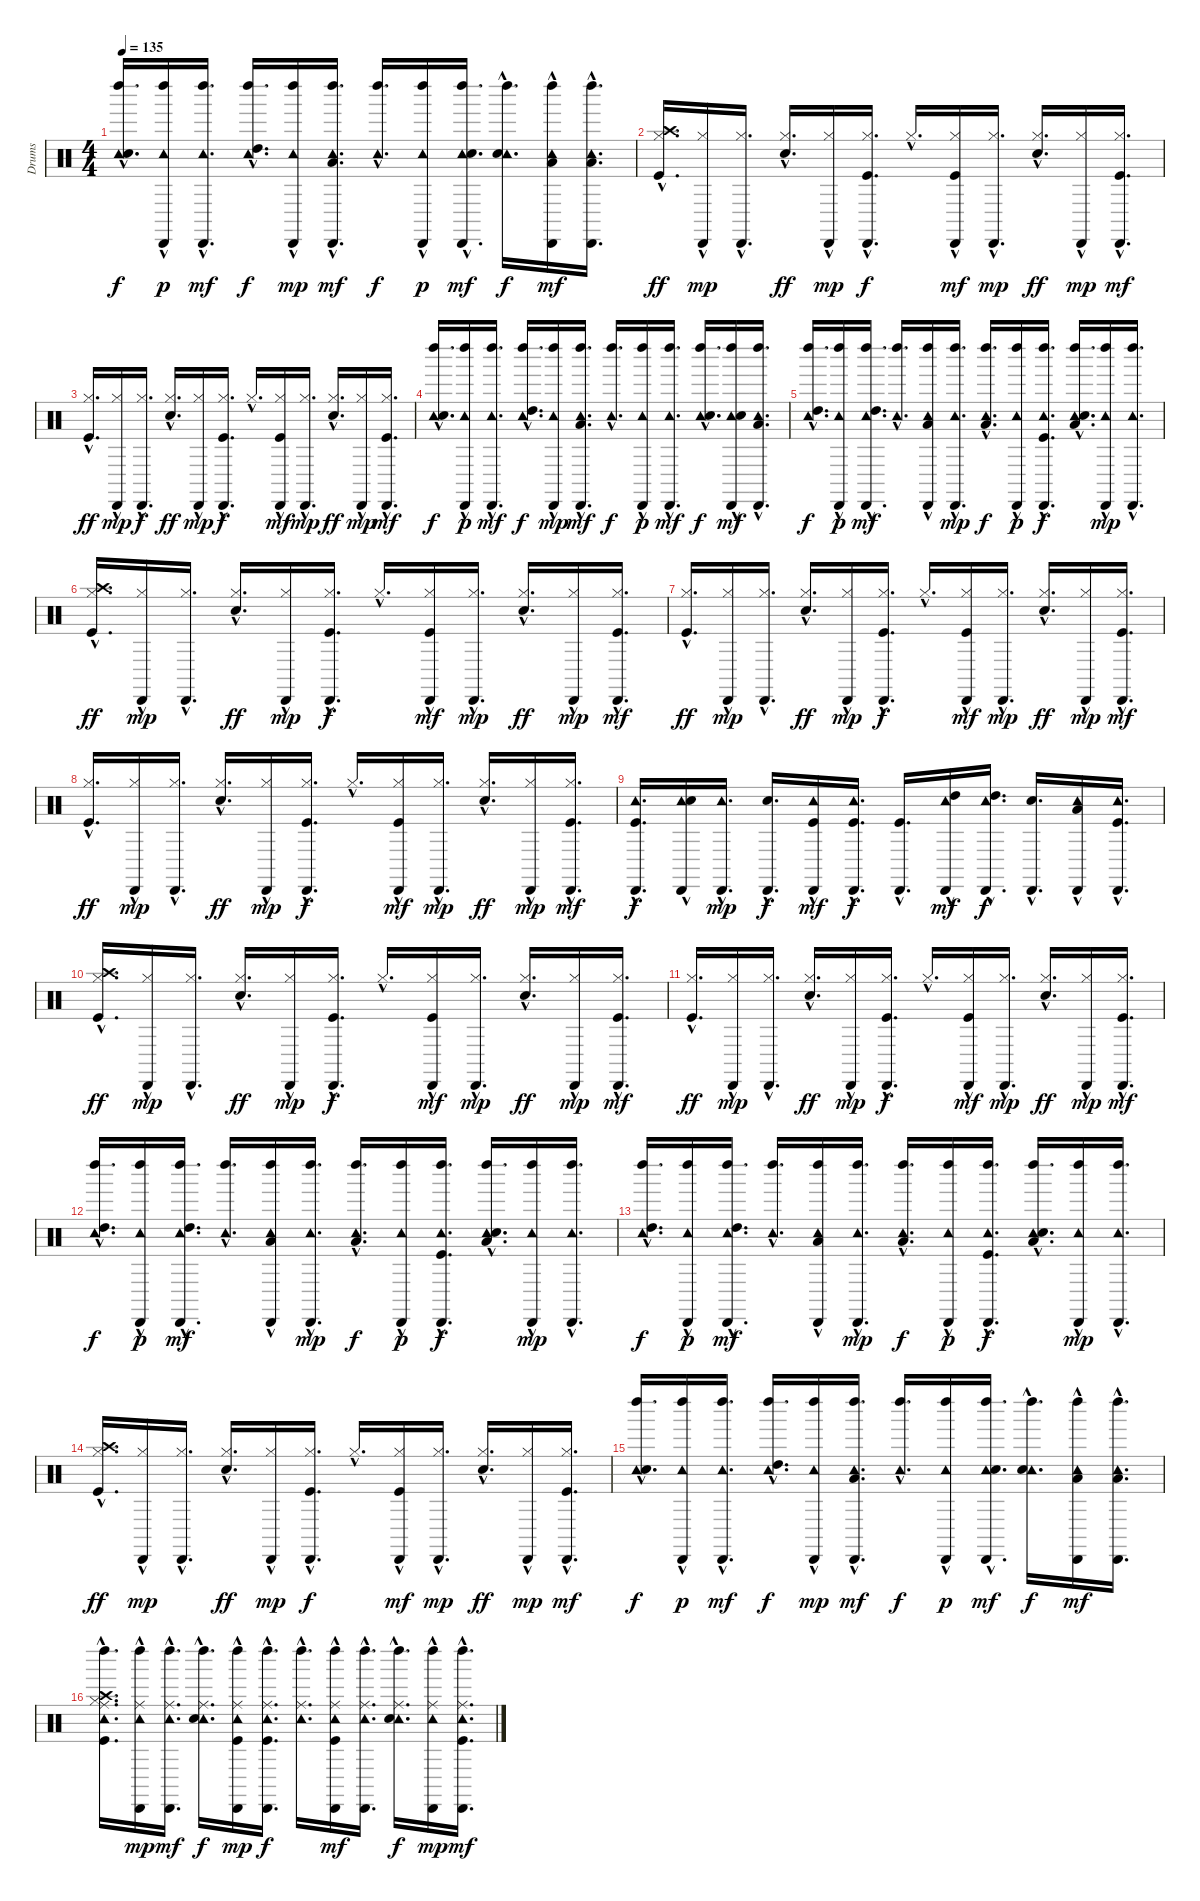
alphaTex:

\track ("Drums" "Drums") {instrument percussion}
\staff {score}
\articulation defaults
\ts (4 4)
\tempo 135
\clef neutral
\ks c
("Left Maraca (hit)"{hac} "Tambourine (hit)"{hac} "Snare (hit) 2"{hac}).16{d dy f} ("Left Maraca (hit)"{hac} "Cabasa (hit)"{hac} "Tambourine (hit)"{hac}).16{dy p} ("Left Maraca (hit)"{hac} "Cabasa (hit)"{hac} "Tambourine (hit)"{hac}).16{d dy mf} ("Left Maraca (hit)"{hac} "Tambourine (hit)"{hac} "High Tom (hit)"{hac}).16{d dy f} ("Left Maraca (hit)"{hac} "Cabasa (hit)"{hac} "Tambourine (hit)"{hac}).16{dy mp} ("Left Maraca (hit)"{hac} "Cabasa (hit)"{hac} "Tambourine (hit)"{hac} "Low Tom (hit)"{hac}).16{d dy mf} ("Left Maraca (hit)"{hac} "Tambourine (hit)"{hac}).16{d dy f} ("Left Maraca (hit)"{hac} "Cabasa (hit)"{hac} "Tambourine (hit)"{hac}).16{dy p} ("Left Maraca (hit)"{hac} "Cabasa (hit)"{hac} "Tambourine (hit)"{hac} "Snare (hit) 2"{hac}).16{d dy mf} ("Left Maraca (hit)"{hac} "Tambourine (hit)"{hac} "Snare (hit) 2"{hac}).16{d dy f} ("Left Maraca (hit)"{hac} "Cabasa (hit)"{hac} "Tambourine (hit)"{hac} "Low Floor Tom (hit)"{hac}).16{dy mf} ("Left Maraca (hit)"{hac} "Cabasa (hit)"{hac} "Tambourine (hit)"{hac} "Low Floor Tom (hit)"{hac}).16{d} |
("Crash high (hit)"{hac} "Hi-Hat (closed)"{hac} "Kick (hit)"{hac}).16{d dy ff} ("Cabasa (hit)"{hac} "Hi-Hat (closed)"{hac}).16{dy mp} ("Cabasa (hit)"{hac} "Hi-Hat (closed)"{hac}).16{d} ("Hi-Hat (closed)"{hac} "Snare (hit) 2"{hac}).16{d dy ff} ("Cabasa (hit)"{hac} "Hi-Hat (closed)"{hac}).16{dy mp} ("Cabasa (hit)"{hac} "Hi-Hat (closed)"{hac} "Kick (hit)"{hac}).16{d dy f} "Hi-Hat (closed)"{hac}.16{d} ("Cabasa (hit)"{hac} "Hi-Hat (closed)"{hac} "Kick (hit)"{hac}).16{dy mf} ("Cabasa (hit)"{hac} "Hi-Hat (closed)"{hac}).16{d dy mp} ("Hi-Hat (closed)"{hac} "Snare (hit) 2"{hac}).16{d dy ff} ("Cabasa (hit)"{hac} "Hi-Hat (closed)"{hac}).16{dy mp} ("Cabasa (hit)"{hac} "Hi-Hat (closed)"{hac} "Kick (hit)"{hac}).16{d dy mf} |
("Hi-Hat (closed)"{hac} "Kick (hit)"{hac}).16{d dy ff} ("Cabasa (hit)"{hac} "Hi-Hat (closed)"{hac}).16{dy mp} ("Cabasa (hit)"{hac} "Hi-Hat (closed)"{hac}).16{d dy f} ("Hi-Hat (closed)"{hac} "Snare (hit) 2"{hac}).16{d dy ff} ("Cabasa (hit)"{hac} "Hi-Hat (closed)"{hac}).16{dy mp} ("Cabasa (hit)"{hac} "Hi-Hat (closed)"{hac} "Kick (hit)"{hac}).16{d dy f} "Hi-Hat (closed)"{hac}.16{d} ("Cabasa (hit)"{hac} "Hi-Hat (closed)"{hac} "Kick (hit)"{hac}).16{dy mf} ("Cabasa (hit)"{hac} "Hi-Hat (closed)"{hac}).16{d dy mp} ("Hi-Hat (closed)"{hac} "Snare (hit) 2"{hac}).16{d dy ff} ("Cabasa (hit)"{hac} "Hi-Hat (closed)"{hac}).16{dy mp} ("Cabasa (hit)"{hac} "Hi-Hat (closed)"{hac} "Kick (hit)"{hac}).16{d dy mf} |
("Left Maraca (hit)"{hac} "Tambourine (hit)"{hac} "Snare (hit) 2"{hac}).16{d dy f} ("Left Maraca (hit)"{hac} "Cabasa (hit)"{hac} "Tambourine (hit)"{hac}).16{dy p} ("Left Maraca (hit)"{hac} "Cabasa (hit)"{hac} "Tambourine (hit)"{hac}).16{d dy mf} ("Left Maraca (hit)"{hac} "Tambourine (hit)"{hac} "High Tom (hit)"{hac}).16{d dy f} ("Left Maraca (hit)"{hac} "Cabasa (hit)"{hac} "Tambourine (hit)"{hac}).16{dy mp} ("Left Maraca (hit)"{hac} "Cabasa (hit)"{hac} "Tambourine (hit)"{hac} "Low Tom (hit)"{hac}).16{d dy mf} ("Left Maraca (hit)"{hac} "Tambourine (hit)"{hac}).16{d dy f} ("Left Maraca (hit)"{hac} "Cabasa (hit)"{hac} "Tambourine (hit)"{hac}).16{dy p} ("Left Maraca (hit)"{hac} "Cabasa (hit)"{hac} "Tambourine (hit)"{hac}).16{d dy mf} ("Left Maraca (hit)"{hac} "Tambourine (hit)"{hac} "Snare (hit) 2"{hac}).16{d dy f} ("Left Maraca (hit)"{hac} "Cabasa (hit)"{hac} "Tambourine (hit)"{hac} "Snare (hit) 2"{hac}).16{dy mf} ("Left Maraca (hit)"{hac} "Cabasa (hit)"{hac} "Tambourine (hit)"{hac} "Low Floor Tom (hit)"{hac}).16{d} |
("Left Maraca (hit)"{hac} "Tambourine (hit)"{hac} "High Tom (hit)"{hac}).16{d dy f} ("Left Maraca (hit)"{hac} "Cabasa (hit)"{hac} "Tambourine (hit)"{hac}).16{dy p} ("Left Maraca (hit)"{hac} "Cabasa (hit)"{hac} "Tambourine (hit)"{hac} "High Tom (hit)"{hac}).16{d dy mf} ("Left Maraca (hit)"{hac} "Tambourine (hit)"{hac}).16{d} ("Left Maraca (hit)"{hac} "Cabasa (hit)"{hac} "Tambourine (hit)"{hac} "Low Tom (hit)"{hac}).16 ("Left Maraca (hit)"{hac} "Cabasa (hit)"{hac} "Tambourine (hit)"{hac}).16{d dy mp} ("Left Maraca (hit)"{hac} "Tambourine (hit)"{hac} "Low Tom (hit)"{hac}).16{d dy f} ("Left Maraca (hit)"{hac} "Cabasa (hit)"{hac} "Tambourine (hit)"{hac}).16{dy p} ("Left Maraca (hit)"{hac} "Cabasa (hit)"{hac} "Tambourine (hit)"{hac} "Kick (hit)"{hac}).16{d dy f} ("Left Maraca (hit)"{hac} "Tambourine (hit)"{hac} "Low Floor Tom (hit)"{hac} "Snare (hit) 2"{hac}).16{d} ("Left Maraca (hit)"{hac} "Cabasa (hit)"{hac} "Tambourine (hit)"{hac}).16{dy mp} ("Left Maraca (hit)"{hac} "Cabasa (hit)"{hac} "Tambourine (hit)"{hac}).16{d} |
("Crash high (hit)"{hac} "Hi-Hat (closed)"{hac} "Kick (hit)"{hac}).16{d dy ff} ("Cabasa (hit)"{hac} "Hi-Hat (closed)"{hac}).16{dy mp} ("Cabasa (hit)"{hac} "Hi-Hat (closed)"{hac}).16{d} ("Hi-Hat (closed)"{hac} "Snare (hit) 2"{hac}).16{d dy ff} ("Cabasa (hit)"{hac} "Hi-Hat (closed)"{hac}).16{dy mp} ("Cabasa (hit)"{hac} "Hi-Hat (closed)"{hac} "Kick (hit)"{hac}).16{d dy f} "Hi-Hat (closed)"{hac}.16{d} ("Cabasa (hit)"{hac} "Hi-Hat (closed)"{hac} "Kick (hit)"{hac}).16{dy mf} ("Cabasa (hit)"{hac} "Hi-Hat (closed)"{hac}).16{d dy mp} ("Hi-Hat (closed)"{hac} "Snare (hit) 2"{hac}).16{d dy ff} ("Cabasa (hit)"{hac} "Hi-Hat (closed)"{hac}).16{dy mp} ("Cabasa (hit)"{hac} "Hi-Hat (closed)"{hac} "Kick (hit)"{hac}).16{d dy mf} |
("Hi-Hat (closed)"{hac} "Kick (hit)"{hac}).16{d dy ff} ("Cabasa (hit)"{hac} "Hi-Hat (closed)"{hac}).16{dy mp} ("Cabasa (hit)"{hac} "Hi-Hat (closed)"{hac}).16{d} ("Hi-Hat (closed)"{hac} "Snare (hit) 2"{hac}).16{d dy ff} ("Cabasa (hit)"{hac} "Hi-Hat (closed)"{hac}).16{dy mp} ("Cabasa (hit)"{hac} "Hi-Hat (closed)"{hac} "Kick (hit)"{hac}).16{d dy f} "Hi-Hat (closed)"{hac}.16{d} ("Cabasa (hit)"{hac} "Hi-Hat (closed)"{hac} "Kick (hit)"{hac}).16{dy mf} ("Cabasa (hit)"{hac} "Hi-Hat (closed)"{hac}).16{d dy mp} ("Hi-Hat (closed)"{hac} "Snare (hit) 2"{hac}).16{d dy ff} ("Cabasa (hit)"{hac} "Hi-Hat (closed)"{hac}).16{dy mp} ("Cabasa (hit)"{hac} "Hi-Hat (closed)"{hac} "Kick (hit)"{hac}).16{d dy mf} |
("Hi-Hat (closed)"{hac} "Kick (hit)"{hac}).16{d dy ff} ("Cabasa (hit)"{hac} "Hi-Hat (closed)"{hac}).16{dy mp} ("Cabasa (hit)"{hac} "Hi-Hat (closed)"{hac}).16{d} ("Hi-Hat (closed)"{hac} "Snare (hit) 2"{hac}).16{d dy ff} ("Cabasa (hit)"{hac} "Hi-Hat (closed)"{hac}).16{dy mp} ("Cabasa (hit)"{hac} "Hi-Hat (closed)"{hac} "Kick (hit)"{hac}).16{d dy f} "Hi-Hat (closed)"{hac}.16{d} ("Cabasa (hit)"{hac} "Hi-Hat (closed)"{hac} "Kick (hit)"{hac}).16{dy mf} ("Cabasa (hit)"{hac} "Hi-Hat (closed)"{hac}).16{d dy mp} ("Hi-Hat (closed)"{hac} "Snare (hit) 2"{hac}).16{d dy ff} ("Cabasa (hit)"{hac} "Hi-Hat (closed)"{hac}).16{dy mp} ("Cabasa (hit)"{hac} "Hi-Hat (closed)"{hac} "Kick (hit)"{hac}).16{d dy mf} |
("Cabasa (hit)"{hac} "Tambourine (hit)"{hac} "Kick (hit)"{hac}).16{d dy f} ("Cabasa (hit)"{hac} "Tambourine (hit)"{hac} "Snare (hit) 2"{hac}).16 ("Cabasa (hit)"{hac} "Tambourine (hit)"{hac}).16{d dy mp} ("Cabasa (hit)"{hac} "Snare (hit) 2"{hac}).16{d dy f} ("Cabasa (hit)"{hac} "Tambourine (hit)"{hac} "Kick (hit)"{hac}).16{dy mf} ("Cabasa (hit)"{hac} "Tambourine (hit)"{hac} "Kick (hit)"{hac}).16{d dy f} ("Cabasa (hit)"{hac} "Kick (hit)"{hac}).16{d} ("Cabasa (hit)"{hac} "Tambourine (hit)"{hac} "High Tom (hit)"{hac}).16{dy mf} ("Cabasa (hit)"{hac} "Tambourine (hit)"{hac} "High Tom (hit)"{hac}).16{d dy f} ("Cabasa (hit)"{hac} "Snare (hit) 2"{hac}).16{d} ("Cabasa (hit)"{hac} "Tambourine (hit)"{hac} "Low Tom (hit)"{hac}).16 ("Cabasa (hit)"{hac} "Tambourine (hit)"{hac} "Kick (hit)"{hac}).16{d} |
("Crash high (hit)"{hac} "Hi-Hat (closed)"{hac} "Kick (hit)"{hac}).16{d dy ff} ("Cabasa (hit)"{hac} "Hi-Hat (closed)"{hac}).16{dy mp} ("Cabasa (hit)"{hac} "Hi-Hat (closed)"{hac}).16{d} ("Hi-Hat (closed)"{hac} "Snare (hit) 2"{hac}).16{d dy ff} ("Cabasa (hit)"{hac} "Hi-Hat (closed)"{hac}).16{dy mp} ("Cabasa (hit)"{hac} "Hi-Hat (closed)"{hac} "Kick (hit)"{hac}).16{d dy f} "Hi-Hat (closed)"{hac}.16{d} ("Cabasa (hit)"{hac} "Hi-Hat (closed)"{hac} "Kick (hit)"{hac}).16{dy mf} ("Cabasa (hit)"{hac} "Hi-Hat (closed)"{hac}).16{d dy mp} ("Hi-Hat (closed)"{hac} "Snare (hit) 2"{hac}).16{d dy ff} ("Cabasa (hit)"{hac} "Hi-Hat (closed)"{hac}).16{dy mp} ("Cabasa (hit)"{hac} "Hi-Hat (closed)"{hac} "Kick (hit)"{hac}).16{d dy mf} |
("Hi-Hat (closed)"{hac} "Kick (hit)"{hac}).16{d dy ff} ("Cabasa (hit)"{hac} "Hi-Hat (closed)"{hac}).16{dy mp} ("Cabasa (hit)"{hac} "Hi-Hat (closed)"{hac}).16{d} ("Hi-Hat (closed)"{hac} "Snare (hit) 2"{hac}).16{d dy ff} ("Cabasa (hit)"{hac} "Hi-Hat (closed)"{hac}).16{dy mp} ("Cabasa (hit)"{hac} "Hi-Hat (closed)"{hac} "Kick (hit)"{hac}).16{d dy f} "Hi-Hat (closed)"{hac}.16{d} ("Cabasa (hit)"{hac} "Hi-Hat (closed)"{hac} "Kick (hit)"{hac}).16{dy mf} ("Cabasa (hit)"{hac} "Hi-Hat (closed)"{hac}).16{d dy mp} ("Hi-Hat (closed)"{hac} "Snare (hit) 2"{hac}).16{d dy ff} ("Cabasa (hit)"{hac} "Hi-Hat (closed)"{hac}).16{dy mp} ("Cabasa (hit)"{hac} "Hi-Hat (closed)"{hac} "Kick (hit)"{hac}).16{d dy mf} |
("Left Maraca (hit)"{hac} "Tambourine (hit)"{hac} "High Tom (hit)"{hac}).16{d dy f} ("Left Maraca (hit)"{hac} "Cabasa (hit)"{hac} "Tambourine (hit)"{hac}).16{dy p} ("Left Maraca (hit)"{hac} "Cabasa (hit)"{hac} "Tambourine (hit)"{hac} "High Tom (hit)"{hac}).16{d dy mf} ("Left Maraca (hit)"{hac} "Tambourine (hit)"{hac}).16{d} ("Left Maraca (hit)"{hac} "Cabasa (hit)"{hac} "Tambourine (hit)"{hac} "Low Tom (hit)"{hac}).16 ("Left Maraca (hit)"{hac} "Cabasa (hit)"{hac} "Tambourine (hit)"{hac}).16{d dy mp} ("Left Maraca (hit)"{hac} "Tambourine (hit)"{hac} "Low Tom (hit)"{hac}).16{d dy f} ("Left Maraca (hit)"{hac} "Cabasa (hit)"{hac} "Tambourine (hit)"{hac}).16{dy p} ("Left Maraca (hit)"{hac} "Cabasa (hit)"{hac} "Tambourine (hit)"{hac} "Kick (hit)"{hac}).16{d dy f} ("Left Maraca (hit)"{hac} "Tambourine (hit)"{hac} "Low Floor Tom (hit)"{hac} "Snare (hit) 2"{hac}).16{d} ("Left Maraca (hit)"{hac} "Cabasa (hit)"{hac} "Tambourine (hit)"{hac}).16{dy mp} ("Left Maraca (hit)"{hac} "Cabasa (hit)"{hac} "Tambourine (hit)"{hac}).16{d} |
("Left Maraca (hit)"{hac} "Tambourine (hit)"{hac} "High Tom (hit)"{hac}).16{d dy f} ("Left Maraca (hit)"{hac} "Cabasa (hit)"{hac} "Tambourine (hit)"{hac}).16{dy p} ("Left Maraca (hit)"{hac} "Cabasa (hit)"{hac} "Tambourine (hit)"{hac} "High Tom (hit)"{hac}).16{d dy mf} ("Left Maraca (hit)"{hac} "Tambourine (hit)"{hac}).16{d} ("Left Maraca (hit)"{hac} "Cabasa (hit)"{hac} "Tambourine (hit)"{hac} "Low Tom (hit)"{hac}).16 ("Left Maraca (hit)"{hac} "Cabasa (hit)"{hac} "Tambourine (hit)"{hac}).16{d dy mp} ("Left Maraca (hit)"{hac} "Tambourine (hit)"{hac} "Low Tom (hit)"{hac}).16{d dy f} ("Left Maraca (hit)"{hac} "Cabasa (hit)"{hac} "Tambourine (hit)"{hac}).16{dy p} ("Left Maraca (hit)"{hac} "Cabasa (hit)"{hac} "Tambourine (hit)"{hac} "Kick (hit)"{hac}).16{d dy f} ("Left Maraca (hit)"{hac} "Tambourine (hit)"{hac} "Low Floor Tom (hit)"{hac} "Snare (hit) 2"{hac}).16{d} ("Left Maraca (hit)"{hac} "Cabasa (hit)"{hac} "Tambourine (hit)"{hac}).16{dy mp} ("Left Maraca (hit)"{hac} "Cabasa (hit)"{hac} "Tambourine (hit)"{hac}).16{d} |
("Crash high (hit)"{hac} "Hi-Hat (closed)"{hac} "Kick (hit)"{hac}).16{d dy ff} ("Cabasa (hit)"{hac} "Hi-Hat (closed)"{hac}).16{dy mp} ("Cabasa (hit)"{hac} "Hi-Hat (closed)"{hac}).16{d} ("Hi-Hat (closed)"{hac} "Snare (hit) 2"{hac}).16{d dy ff} ("Cabasa (hit)"{hac} "Hi-Hat (closed)"{hac}).16{dy mp} ("Cabasa (hit)"{hac} "Hi-Hat (closed)"{hac} "Kick (hit)"{hac}).16{d dy f} "Hi-Hat (closed)"{hac}.16{d} ("Cabasa (hit)"{hac} "Hi-Hat (closed)"{hac} "Kick (hit)"{hac}).16{dy mf} ("Cabasa (hit)"{hac} "Hi-Hat (closed)"{hac}).16{d dy mp} ("Hi-Hat (closed)"{hac} "Snare (hit) 2"{hac}).16{d dy ff} ("Cabasa (hit)"{hac} "Hi-Hat (closed)"{hac}).16{dy mp} ("Cabasa (hit)"{hac} "Hi-Hat (closed)"{hac} "Kick (hit)"{hac}).16{d dy mf} |
("Left Maraca (hit)"{hac} "Tambourine (hit)"{hac} "Snare (hit) 2"{hac}).16{d dy f} ("Left Maraca (hit)"{hac} "Cabasa (hit)"{hac} "Tambourine (hit)"{hac}).16{dy p} ("Left Maraca (hit)"{hac} "Cabasa (hit)"{hac} "Tambourine (hit)"{hac}).16{d dy mf} ("Left Maraca (hit)"{hac} "Tambourine (hit)"{hac} "High Tom (hit)"{hac}).16{d dy f} ("Left Maraca (hit)"{hac} "Cabasa (hit)"{hac} "Tambourine (hit)"{hac}).16{dy mp} ("Left Maraca (hit)"{hac} "Cabasa (hit)"{hac} "Tambourine (hit)"{hac} "Low Tom (hit)"{hac}).16{d dy mf} ("Left Maraca (hit)"{hac} "Tambourine (hit)"{hac}).16{d dy f} ("Left Maraca (hit)"{hac} "Cabasa (hit)"{hac} "Tambourine (hit)"{hac}).16{dy p} ("Left Maraca (hit)"{hac} "Cabasa (hit)"{hac} "Tambourine (hit)"{hac} "Snare (hit) 2"{hac}).16{d dy mf} ("Left Maraca (hit)"{hac} "Tambourine (hit)"{hac} "Snare (hit) 2"{hac}).16{d dy f} ("Left Maraca (hit)"{hac} "Cabasa (hit)"{hac} "Tambourine (hit)"{hac} "Low Floor Tom (hit)"{hac}).16{dy mf} ("Left Maraca (hit)"{hac} "Cabasa (hit)"{hac} "Tambourine (hit)"{hac} "Low Floor Tom (hit)"{hac}).16{d} |
("Left Maraca (hit)"{hac} "Tambourine (hit)"{hac} "Ride (middle)"{hac} "Crash high (hit)"{hac} "Hi-Hat (closed)"{hac} "Kick (hit)"{hac}).16{d} ("Left Maraca (hit)"{hac} "Cabasa (hit)"{hac} "Tambourine (hit)"{hac} "Ride (middle)"{hac}).16{dy mp} ("Left Maraca (hit)"{hac} "Cabasa (hit)"{hac} "Tambourine (hit)"{hac} "Ride (middle)"{hac}).16{d dy mf} ("Left Maraca (hit)"{hac} "Tambourine (hit)"{hac} "Ride (middle)"{hac} "Snare (hit) 2"{hac}).16{d dy f} ("Left Maraca (hit)"{hac} "Cabasa (hit)"{hac} "Tambourine (hit)"{hac} "Ride (middle)"{hac} "Kick (hit)"{hac}).16{dy mp} ("Left Maraca (hit)"{hac} "Cabasa (hit)"{hac} "Tambourine (hit)"{hac} "Ride (middle)"{hac} "Kick (hit)"{hac}).16{d dy f} ("Left Maraca (hit)"{hac} "Tambourine (hit)"{hac} "Ride (middle)"{hac}).16{d} ("Left Maraca (hit)"{hac} "Cabasa (hit)"{hac} "Tambourine (hit)"{hac} "Ride (middle)"{hac} "Kick (hit)"{hac}).16{dy mf} ("Left Maraca (hit)"{hac} "Cabasa (hit)"{hac} "Tambourine (hit)"{hac} "Ride (middle)"{hac}).16{d} ("Left Maraca (hit)"{hac} "Tambourine (hit)"{hac} "Ride (middle)"{hac} "Snare (hit) 2"{hac}).16{d dy f} ("Left Maraca (hit)"{hac} "Cabasa (hit)"{hac} "Tambourine (hit)"{hac} "Ride (middle)"{hac}).16{dy mp} ("Left Maraca (hit)"{hac} "Cabasa (hit)"{hac} "Tambourine (hit)"{hac} "Ride (middle)"{hac} "Kick (hit)"{hac}).16{d dy mf}
